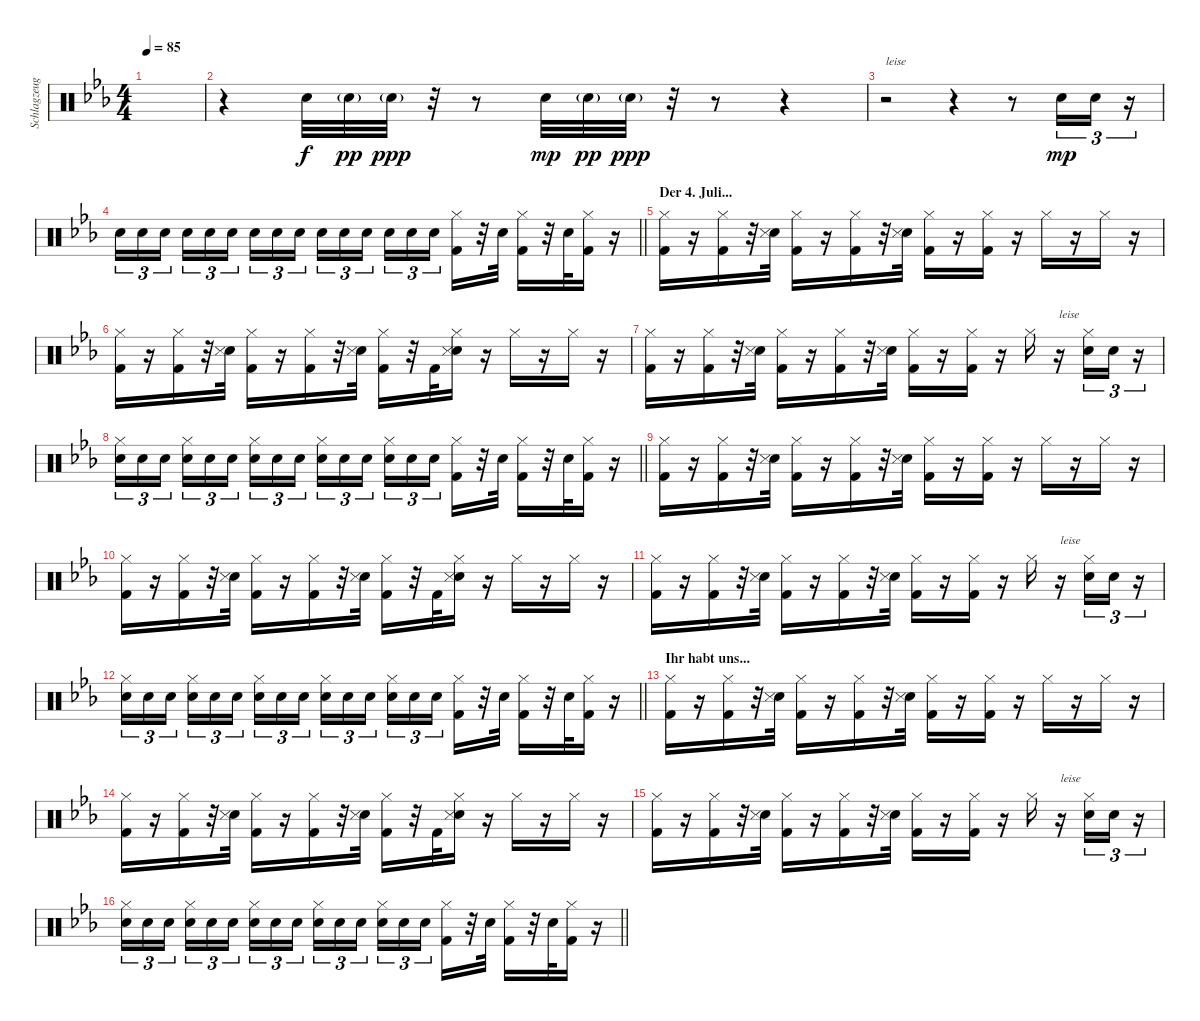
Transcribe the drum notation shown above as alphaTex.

\track ("Schlagzeug" "Schlagzeug") {instrument percussion}
\staff {score}
\articulation defaults
\ts (4 4)
\tempo 85
\clef neutral
\ks cminor
|
r.4 "Electric Snare (hit)".32 "Electric Snare (hit)"{g}.32{dy pp} "Electric Snare (hit)"{g}.32{dy ppp} r.32 r.8 "Electric Snare (hit)".32{dy mp} "Electric Snare (hit)"{g}.32{dy pp} "Electric Snare (hit)"{g}.32{dy ppp} r.32 r.8 r.4 |
r.2{txt "leise" volume 5} r.4 r.8 "Electric Snare (hit)".16{tu (3 2) dy mp} "Electric Snare (hit)".16{tu (3 2)} r.16{tu (3 2)} |
\barLineRight lightlight "Electric Snare (hit)".16{tu (3 2) volume 15} "Electric Snare (hit)".16{tu (3 2)} "Electric Snare (hit)".16{tu (3 2) beam splitsecondary} "Electric Snare (hit)".16{tu (3 2)} "Electric Snare (hit)".16{tu (3 2)} "Electric Snare (hit)".16{tu (3 2)} "Electric Snare (hit)".16{tu (3 2)} "Electric Snare (hit)".16{tu (3 2)} "Electric Snare (hit)".16{tu (3 2) beam splitsecondary} "Electric Snare (hit)".16{tu (3 2)} "Electric Snare (hit)".16{tu (3 2)} "Electric Snare (hit)".16{tu (3 2)} "Electric Snare (hit)".16{tu (3 2)} "Electric Snare (hit)".16{tu (3 2)} "Electric Snare (hit)".16{tu (3 2) beam splitsecondary}
("Hi-Hat (closed)" "Kick (hit) 2").16 r.32 "Electric Snare (hit)".32 ("Hi-Hat (closed)" "Kick (hit) 2").16 r.32 "Electric Snare (hit)".32 ("Hi-Hat (closed)" "Kick (hit) 2").16 r.16 |
\section ("" "Der 4. Juli...")
("Hi-Hat (closed)" "Kick (hit) 2").16 r.16 ("Hi-Hat (closed)" "Kick (hit) 2").16 r.32 ("Electric Snare (hit)" "Snare (side stick) 3").32 ("Hi-Hat (closed)" "Kick (hit) 2").16 r.16 ("Hi-Hat (closed)" "Kick (hit) 2").16 r.32 ("Electric Snare (hit)" "Snare (side stick) 3").32 ("Hi-Hat (closed)" "Kick (hit) 2").16 r.16 ("Hi-Hat (closed)" "Kick (hit) 2").16 r.16 "Hi-Hat (closed)".16 r.16 "Hi-Hat (closed)".16 r.16 |
("Hi-Hat (closed)" "Kick (hit) 2").16 r.16 ("Hi-Hat (closed)" "Kick (hit) 2").16 r.32 ("Electric Snare (hit)" "Snare (side stick) 3").32 ("Hi-Hat (closed)" "Kick (hit) 2").16 r.16 ("Hi-Hat (closed)" "Kick (hit) 2").16 r.32 ("Electric Snare (hit)" "Snare (side stick) 3").32 ("Hi-Hat (closed)" "Kick (hit) 2").16 r.32 "Kick (hit) 2".32 ("Hi-Hat (closed)" "Electric Snare (hit)" "Snare (side stick) 3").16 r.16 "Hi-Hat (closed)".16 r.16 "Hi-Hat (closed)".16 r.16 |
("Hi-Hat (closed)" "Kick (hit) 2").16 r.16 ("Hi-Hat (closed)" "Kick (hit) 2").16 r.32 ("Electric Snare (hit)" "Snare (side stick) 3").32 ("Hi-Hat (closed)" "Kick (hit) 2").16 r.16 ("Hi-Hat (closed)" "Kick (hit) 2").16 r.32 ("Electric Snare (hit)" "Snare (side stick) 3").32 ("Hi-Hat (closed)" "Kick (hit) 2").16 r.16 ("Hi-Hat (closed)" "Kick (hit) 2").16 r.16 "Hi-Hat (closed)".16 r.16{txt "leise" volume 5} ("Hi-Hat (closed)" "Electric Snare (hit)").16{tu (3 2)} "Electric Snare (hit)".16{tu (3 2)} r.16{tu (3 2)} |
\barLineRight lightlight
("Hi-Hat (closed)" "Electric Snare (hit)").16{tu (3 2) volume 15} "Electric Snare (hit)".16{tu (3 2)} "Electric Snare (hit)".16{tu (3 2) beam splitsecondary} ("Hi-Hat (closed)" "Electric Snare (hit)").16{tu (3 2)} "Electric Snare (hit)".16{tu (3 2)} "Electric Snare (hit)".16{tu (3 2)} ("Hi-Hat (closed)" "Electric Snare (hit)").16{tu (3 2)} "Electric Snare (hit)".16{tu (3 2)} "Electric Snare (hit)".16{tu (3 2) beam splitsecondary} ("Hi-Hat (closed)" "Electric Snare (hit)").16{tu (3 2)} "Electric Snare (hit)".16{tu (3 2)} "Electric Snare (hit)".16{tu (3 2)} ("Hi-Hat (closed)" "Electric Snare (hit)").16{tu (3 2)} "Electric Snare (hit)".16{tu (3 2)} "Electric Snare (hit)".16{tu (3 2) beam splitsecondary} ("Hi-Hat (closed)" "Kick (hit) 2").16 r.32 "Electric Snare (hit)".32 ("Hi-Hat (closed)" "Kick (hit) 2").16 r.32 "Electric Snare (hit)".32 ("Hi-Hat (closed)" "Kick (hit) 2").16 r.16 |
("Hi-Hat (closed)" "Kick (hit) 2").16 r.16 ("Hi-Hat (closed)" "Kick (hit) 2").16 r.32 ("Electric Snare (hit)" "Snare (side stick) 3").32 ("Hi-Hat (closed)" "Kick (hit) 2").16 r.16 ("Hi-Hat (closed)" "Kick (hit) 2").16 r.32 ("Electric Snare (hit)" "Snare (side stick) 3").32 ("Hi-Hat (closed)" "Kick (hit) 2").16 r.16 ("Hi-Hat (closed)" "Kick (hit) 2").16 r.16 "Hi-Hat (closed)".16 r.16 "Hi-Hat (closed)".16 r.16 |
("Hi-Hat (closed)" "Kick (hit) 2").16 r.16 ("Hi-Hat (closed)" "Kick (hit) 2").16 r.32 ("Electric Snare (hit)" "Snare (side stick) 3").32 ("Hi-Hat (closed)" "Kick (hit) 2").16 r.16 ("Hi-Hat (closed)" "Kick (hit) 2").16 r.32 ("Electric Snare (hit)" "Snare (side stick) 3").32 ("Hi-Hat (closed)" "Kick (hit) 2").16 r.32 "Kick (hit) 2".32 ("Hi-Hat (closed)" "Electric Snare (hit)" "Snare (side stick) 3").16 r.16 "Hi-Hat (closed)".16 r.16 "Hi-Hat (closed)".16 r.16 |
("Hi-Hat (closed)" "Kick (hit) 2").16 r.16 ("Hi-Hat (closed)" "Kick (hit) 2").16 r.32 ("Electric Snare (hit)" "Snare (side stick) 3").32 ("Hi-Hat (closed)" "Kick (hit) 2").16 r.16 ("Hi-Hat (closed)" "Kick (hit) 2").16 r.32 ("Electric Snare (hit)" "Snare (side stick) 3").32 ("Hi-Hat (closed)" "Kick (hit) 2").16 r.16 ("Hi-Hat (closed)" "Kick (hit) 2").16 r.16 "Hi-Hat (closed)".16 r.16{txt "leise" volume 5} ("Hi-Hat (closed)" "Electric Snare (hit)").16{tu (3 2)} "Electric Snare (hit)".16{tu (3 2)} r.16{tu (3 2)} |
\barLineRight lightlight
("Hi-Hat (closed)" "Electric Snare (hit)").16{tu (3 2) volume 15} "Electric Snare (hit)".16{tu (3 2)} "Electric Snare (hit)".16{tu (3 2) beam splitsecondary} ("Hi-Hat (closed)" "Electric Snare (hit)").16{tu (3 2)} "Electric Snare (hit)".16{tu (3 2)} "Electric Snare (hit)".16{tu (3 2)} ("Hi-Hat (closed)" "Electric Snare (hit)").16{tu (3 2)} "Electric Snare (hit)".16{tu (3 2)} "Electric Snare (hit)".16{tu (3 2) beam splitsecondary} ("Hi-Hat (closed)" "Electric Snare (hit)").16{tu (3 2)} "Electric Snare (hit)".16{tu (3 2)} "Electric Snare (hit)".16{tu (3 2)} ("Hi-Hat (closed)" "Electric Snare (hit)").16{tu (3 2)} "Electric Snare (hit)".16{tu (3 2)} "Electric Snare (hit)".16{tu (3 2) beam splitsecondary} ("Hi-Hat (closed)" "Kick (hit) 2").16 r.32 "Electric Snare (hit)".32 ("Hi-Hat (closed)" "Kick (hit) 2").16 r.32 "Electric Snare (hit)".32 ("Hi-Hat (closed)" "Kick (hit) 2").16 r.16 |
\section ("" "Ihr habt uns...")
("Hi-Hat (closed)" "Kick (hit) 2").16 r.16 ("Hi-Hat (closed)" "Kick (hit) 2").16 r.32 ("Electric Snare (hit)" "Snare (side stick) 3").32 ("Hi-Hat (closed)" "Kick (hit) 2").16 r.16 ("Hi-Hat (closed)" "Kick (hit) 2").16 r.32 ("Electric Snare (hit)" "Snare (side stick) 3").32 ("Hi-Hat (closed)" "Kick (hit) 2").16 r.16 ("Hi-Hat (closed)" "Kick (hit) 2").16 r.16 "Hi-Hat (closed)".16 r.16 "Hi-Hat (closed)".16 r.16 |
("Hi-Hat (closed)" "Kick (hit) 2").16 r.16 ("Hi-Hat (closed)" "Kick (hit) 2").16 r.32 ("Electric Snare (hit)" "Snare (side stick) 3").32 ("Hi-Hat (closed)" "Kick (hit) 2").16 r.16 ("Hi-Hat (closed)" "Kick (hit) 2").16 r.32 ("Electric Snare (hit)" "Snare (side stick) 3").32 ("Hi-Hat (closed)" "Kick (hit) 2").16 r.32 "Kick (hit) 2".32 ("Hi-Hat (closed)" "Electric Snare (hit)" "Snare (side stick) 3").16 r.16 "Hi-Hat (closed)".16 r.16 "Hi-Hat (closed)".16 r.16 |
("Hi-Hat (closed)" "Kick (hit) 2").16 r.16 ("Hi-Hat (closed)" "Kick (hit) 2").16 r.32 ("Electric Snare (hit)" "Snare (side stick) 3").32 ("Hi-Hat (closed)" "Kick (hit) 2").16 r.16 ("Hi-Hat (closed)" "Kick (hit) 2").16 r.32 ("Electric Snare (hit)" "Snare (side stick) 3").32 ("Hi-Hat (closed)" "Kick (hit) 2").16 r.16 ("Hi-Hat (closed)" "Kick (hit) 2").16 r.16 "Hi-Hat (closed)".16 r.16{txt "leise" volume 5} ("Hi-Hat (closed)" "Electric Snare (hit)").16{tu (3 2)} "Electric Snare (hit)".16{tu (3 2)} r.16{tu (3 2)} |
\barLineRight lightlight
("Hi-Hat (closed)" "Electric Snare (hit)").16{tu (3 2) volume 15} "Electric Snare (hit)".16{tu (3 2)} "Electric Snare (hit)".16{tu (3 2) beam splitsecondary} ("Hi-Hat (closed)" "Electric Snare (hit)").16{tu (3 2)} "Electric Snare (hit)".16{tu (3 2)} "Electric Snare (hit)".16{tu (3 2)} ("Hi-Hat (closed)" "Electric Snare (hit)").16{tu (3 2)} "Electric Snare (hit)".16{tu (3 2)} "Electric Snare (hit)".16{tu (3 2) beam splitsecondary} ("Hi-Hat (closed)" "Electric Snare (hit)").16{tu (3 2)} "Electric Snare (hit)".16{tu (3 2)} "Electric Snare (hit)".16{tu (3 2)} ("Hi-Hat (closed)" "Electric Snare (hit)").16{tu (3 2)} "Electric Snare (hit)".16{tu (3 2)} "Electric Snare (hit)".16{tu (3 2) beam splitsecondary} ("Hi-Hat (closed)" "Kick (hit) 2").16 r.32 "Electric Snare (hit)".32 ("Hi-Hat (closed)" "Kick (hit) 2").16 r.32 "Electric Snare (hit)".32 ("Hi-Hat (closed)" "Kick (hit) 2").16 r.16
